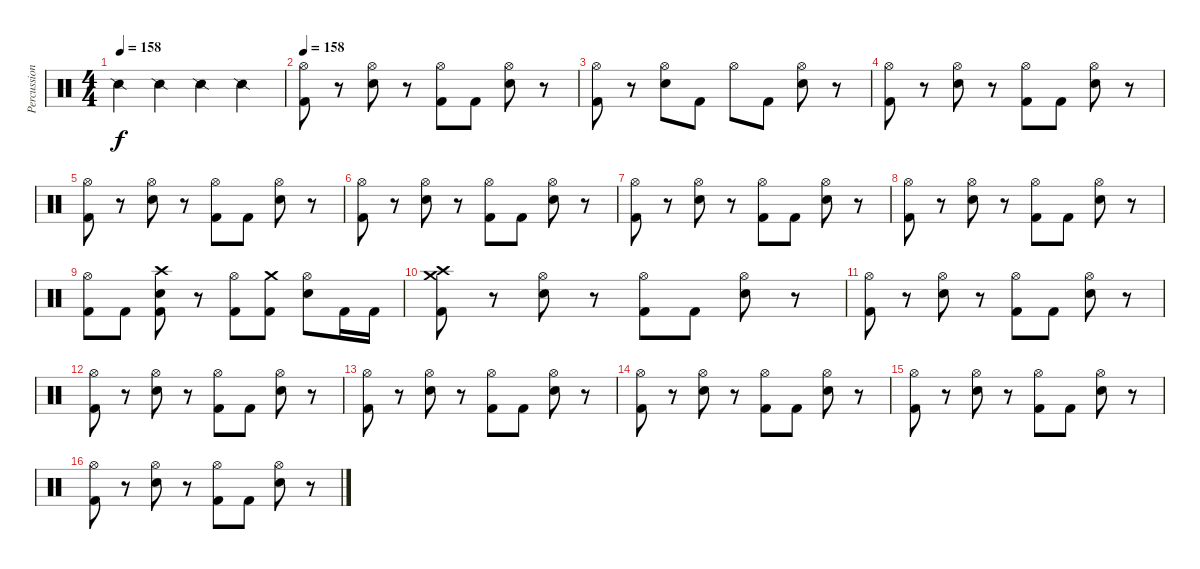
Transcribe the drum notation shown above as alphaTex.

\track ("Percussion" "Percussion") {instrument percussion}
\staff {score}
\articulation defaults
\ts (4 4)
\tempo 158
\clef neutral
\ks c "Snare (side stick) 2".4{dy f} "Snare (side stick) 2".4 "Snare (side stick) 2".4 "Snare (side stick) 2".4
|
\tempo 158
("Hi-Hat (open)" "Kick (hit) 2").8 r.8 ("Hi-Hat (open)" "Snare (hit) 2").8 r.8 ("Hi-Hat (open)" "Kick (hit) 2").8 "Kick (hit) 2".8 ("Hi-Hat (open)" "Snare (hit) 2").8 r.8 |
("Hi-Hat (open)" "Kick (hit) 2").8 r.8 ("Hi-Hat (open)" "Snare (hit) 2").8 "Kick (hit) 2".8 "Hi-Hat (open)".8 "Kick (hit) 2".8 ("Hi-Hat (open)" "Snare (hit) 2").8 r.8 |
("Hi-Hat (open)" "Kick (hit) 2").8 r.8 ("Hi-Hat (open)" "Snare (hit) 2").8 r.8 ("Hi-Hat (open)" "Kick (hit) 2").8 "Kick (hit) 2".8 ("Hi-Hat (open)" "Snare (hit) 2").8 r.8 |
("Hi-Hat (open)" "Kick (hit) 2").8 r.8 ("Hi-Hat (open)" "Snare (hit) 2").8 r.8 ("Hi-Hat (open)" "Kick (hit) 2").8 "Kick (hit) 2".8 ("Hi-Hat (open)" "Snare (hit) 2").8 r.8 |
("Hi-Hat (open)" "Kick (hit) 2").8 r.8 ("Hi-Hat (open)" "Snare (hit) 2").8 r.8 ("Hi-Hat (open)" "Kick (hit) 2").8 "Kick (hit) 2".8 ("Hi-Hat (open)" "Snare (hit) 2").8 r.8 |
("Hi-Hat (open)" "Kick (hit) 2").8 r.8 ("Hi-Hat (open)" "Snare (hit) 2").8 r.8 ("Hi-Hat (open)" "Kick (hit) 2").8 "Kick (hit) 2".8 ("Hi-Hat (open)" "Snare (hit) 2").8 r.8 |
("Hi-Hat (open)" "Kick (hit) 2").8 r.8 ("Hi-Hat (open)" "Snare (hit) 2").8 r.8 ("Hi-Hat (open)" "Kick (hit) 2").8 "Kick (hit) 2".8 ("Hi-Hat (open)" "Snare (hit) 2").8 r.8 |
("Hi-Hat (open)" "Kick (hit) 2").8 "Kick (hit) 2".8 ("Crash high (hit)" "Snare (hit) 2" "Kick (hit) 2").8 r.8 ("Hi-Hat (open)" "Kick (hit) 2").8 ("Crash medium (hit)" "Kick (hit) 2").8 ("Hi-Hat (open)" "Snare (hit) 2").8 "Kick (hit) 2".16 "Kick (hit) 2".16 |
("Crash medium (hit)" "Crash high (hit)" "Kick (hit) 2").8 r.8 ("Hi-Hat (open)" "Snare (hit) 2").8 r.8 ("Hi-Hat (open)" "Kick (hit) 2").8 "Kick (hit) 2".8 ("Hi-Hat (open)" "Snare (hit) 2").8 r.8 |
("Hi-Hat (open)" "Kick (hit) 2").8 r.8 ("Hi-Hat (open)" "Snare (hit) 2").8 r.8 ("Hi-Hat (open)" "Kick (hit) 2").8 "Kick (hit) 2".8 ("Hi-Hat (open)" "Snare (hit) 2").8 r.8 |
("Hi-Hat (open)" "Kick (hit) 2").8 r.8 ("Hi-Hat (open)" "Snare (hit) 2").8 r.8 ("Hi-Hat (open)" "Kick (hit) 2").8 "Kick (hit) 2".8 ("Hi-Hat (open)" "Snare (hit) 2").8 r.8 |
("Hi-Hat (open)" "Kick (hit) 2").8 r.8 ("Hi-Hat (open)" "Snare (hit) 2").8 r.8 ("Hi-Hat (open)" "Kick (hit) 2").8 "Kick (hit) 2".8 ("Hi-Hat (open)" "Snare (hit) 2").8 r.8 |
("Hi-Hat (open)" "Kick (hit) 2").8 r.8 ("Hi-Hat (open)" "Snare (hit) 2").8 r.8 ("Hi-Hat (open)" "Kick (hit) 2").8 "Kick (hit) 2".8 ("Hi-Hat (open)" "Snare (hit) 2").8 r.8 |
("Hi-Hat (open)" "Kick (hit) 2").8 r.8 ("Hi-Hat (open)" "Snare (hit) 2").8 r.8 ("Hi-Hat (open)" "Kick (hit) 2").8 "Kick (hit) 2".8 ("Hi-Hat (open)" "Snare (hit) 2").8 r.8 |
("Hi-Hat (open)" "Kick (hit) 2").8 r.8 ("Hi-Hat (open)" "Snare (hit) 2").8 r.8 ("Hi-Hat (open)" "Kick (hit) 2").8 "Kick (hit) 2".8 ("Hi-Hat (open)" "Snare (hit) 2").8 r.8
